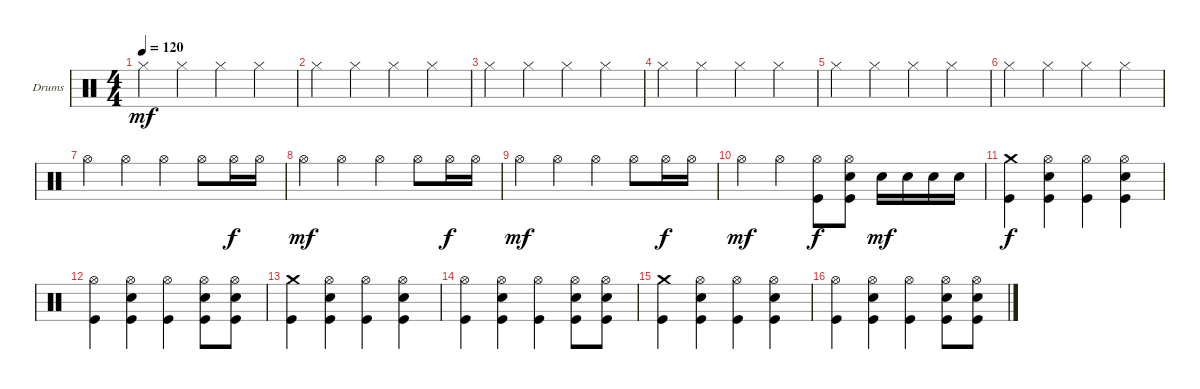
\bracketExtendMode groupsimilarinstruments
\firstSystemTrackNameOrientation horizontal
\otherSystemsTrackNameOrientation horizontal
\track ("Drumkit" "Drums") {instrument percussion}
\staff {score}
\articulation defaults
\ts (4 4)
\beaming (8 2 2 2 2)
\tempo 120
\clef neutral
\ks c "Hi-Hat (closed)".4{dy mf} "Hi-Hat (closed)".4 "Hi-Hat (closed)".4 "Hi-Hat (closed)".4
|
"Hi-Hat (closed)".4 "Hi-Hat (closed)".4 "Hi-Hat (closed)".4 "Hi-Hat (closed)".4 |
"Hi-Hat (closed)".4 "Hi-Hat (closed)".4 "Hi-Hat (closed)".4 "Hi-Hat (closed)".4 |
"Hi-Hat (closed)".4 "Hi-Hat (closed)".4 "Hi-Hat (closed)".4 "Hi-Hat (closed)".4 |
"Hi-Hat (closed)".4 "Hi-Hat (closed)".4 "Hi-Hat (closed)".4 "Hi-Hat (closed)".4 |
"Hi-Hat (closed)".4 "Hi-Hat (closed)".4 "Hi-Hat (closed)".4 "Hi-Hat (closed)".4 |
"Hi-Hat (open)".4 "Hi-Hat (open)".4 "Hi-Hat (open)".4 "Hi-Hat (open)".8 "Hi-Hat (open)".16{dy f} "Hi-Hat (open)".16 |
"Hi-Hat (open)".4{dy mf} "Hi-Hat (open)".4 "Hi-Hat (open)".4 "Hi-Hat (open)".8 "Hi-Hat (open)".16{dy f} "Hi-Hat (open)".16 |
"Hi-Hat (open)".4{dy mf} "Hi-Hat (open)".4 "Hi-Hat (open)".4 "Hi-Hat (open)".8 "Hi-Hat (open)".16{dy f} "Hi-Hat (open)".16 |
"Hi-Hat (open)".4{dy mf} "Hi-Hat (open)".4 ("Hi-Hat (open)" "Kick (hit)").8{dy f} ("Hi-Hat (open)" "Snare (hit) 2" "Kick (hit)").8 "Snare (hit) 2".16{dy mf} "Snare (hit) 2".16 "Snare (hit) 2".16 "Snare (hit) 2".16 |
("Kick (hit)" "Crash medium (hit)").4{dy f} ("Kick (hit)" "Hi-Hat (open)" "Snare (hit) 2").4 ("Kick (hit)" "Hi-Hat (open)").4 ("Kick (hit)" "Hi-Hat (open)" "Snare (hit) 2").4 |
("Kick (hit)" "Hi-Hat (open)").4 ("Kick (hit)" "Hi-Hat (open)" "Snare (hit) 2").4 ("Kick (hit)" "Hi-Hat (open)").4 ("Kick (hit)" "Hi-Hat (open)" "Snare (hit) 2").8 ("Kick (hit)" "Hi-Hat (open)" "Snare (hit) 2").8 |
("Kick (hit)" "Crash medium (hit)").4 ("Kick (hit)" "Hi-Hat (open)" "Snare (hit) 2").4 ("Kick (hit)" "Hi-Hat (open)").4 ("Kick (hit)" "Hi-Hat (open)" "Snare (hit) 2").4 |
("Kick (hit)" "Hi-Hat (open)").4 ("Kick (hit)" "Hi-Hat (open)" "Snare (hit) 2").4 ("Kick (hit)" "Hi-Hat (open)").4 ("Kick (hit)" "Hi-Hat (open)" "Snare (hit) 2").8 ("Kick (hit)" "Hi-Hat (open)" "Snare (hit) 2").8 |
("Kick (hit)" "Crash medium (hit)").4 ("Kick (hit)" "Hi-Hat (open)" "Snare (hit) 2").4 ("Kick (hit)" "Hi-Hat (open)").4 ("Kick (hit)" "Hi-Hat (open)" "Snare (hit) 2").4 |
("Kick (hit)" "Hi-Hat (open)").4 ("Kick (hit)" "Hi-Hat (open)" "Snare (hit) 2").4 ("Kick (hit)" "Hi-Hat (open)").4 ("Kick (hit)" "Hi-Hat (open)" "Snare (hit) 2").8 ("Kick (hit)" "Hi-Hat (open)" "Snare (hit) 2").8
